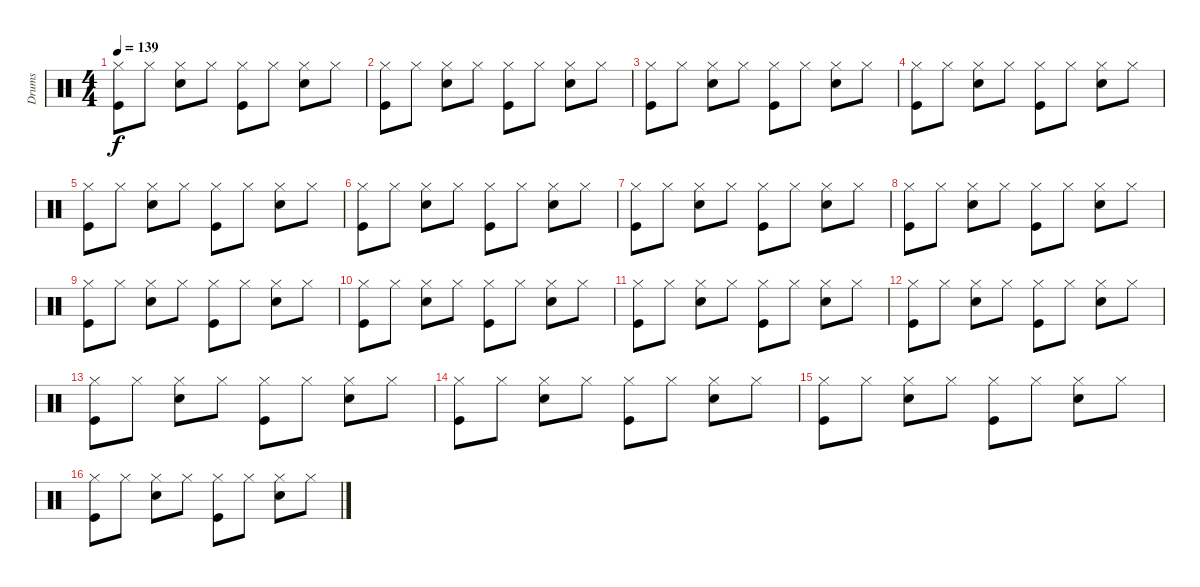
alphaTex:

\track ("Drums" "Drums") {instrument percussion}
\staff {score}
\articulation defaults
\ts (4 4)
\tempo 139
\clef neutral
\ks c
("Kick (hit)" "Hi-Hat (closed)").8{dy f} "Hi-Hat (closed)".8 ("Hi-Hat (closed)" "Snare (hit) 2").8 "Hi-Hat (closed)".8 ("Hi-Hat (closed)" "Kick (hit)").8 "Hi-Hat (closed)".8 ("Hi-Hat (closed)" "Snare (hit) 2").8 "Hi-Hat (closed)".8 |
("Hi-Hat (closed)" "Kick (hit)").8 "Hi-Hat (closed)".8 ("Hi-Hat (closed)" "Snare (hit) 2").8 "Hi-Hat (closed)".8 ("Hi-Hat (closed)" "Kick (hit)").8 "Hi-Hat (closed)".8 ("Hi-Hat (closed)" "Snare (hit) 2").8 "Hi-Hat (closed)".8 |
("Kick (hit)" "Hi-Hat (closed)").8 "Hi-Hat (closed)".8 ("Hi-Hat (closed)" "Snare (hit) 2").8 "Hi-Hat (closed)".8 ("Hi-Hat (closed)" "Kick (hit)").8 "Hi-Hat (closed)".8 ("Hi-Hat (closed)" "Snare (hit) 2").8 "Hi-Hat (closed)".8 |
("Kick (hit)" "Hi-Hat (closed)").8 "Hi-Hat (closed)".8 ("Hi-Hat (closed)" "Snare (hit) 2").8 "Hi-Hat (closed)".8 ("Hi-Hat (closed)" "Kick (hit)").8 "Hi-Hat (closed)".8 ("Hi-Hat (closed)" "Snare (hit) 2").8 "Hi-Hat (closed)".8 |
("Kick (hit)" "Hi-Hat (closed)").8 "Hi-Hat (closed)".8 ("Hi-Hat (closed)" "Snare (hit) 2").8 "Hi-Hat (closed)".8 ("Hi-Hat (closed)" "Kick (hit)").8 "Hi-Hat (closed)".8 ("Hi-Hat (closed)" "Snare (hit) 2").8 "Hi-Hat (closed)".8 |
("Kick (hit)" "Hi-Hat (closed)").8 "Hi-Hat (closed)".8 ("Hi-Hat (closed)" "Snare (hit) 2").8 "Hi-Hat (closed)".8 ("Hi-Hat (closed)" "Kick (hit)").8 "Hi-Hat (closed)".8 ("Hi-Hat (closed)" "Snare (hit) 2").8 "Hi-Hat (closed)".8 |
("Kick (hit)" "Hi-Hat (closed)").8 "Hi-Hat (closed)".8 ("Hi-Hat (closed)" "Snare (hit) 2").8 "Hi-Hat (closed)".8 ("Hi-Hat (closed)" "Kick (hit)").8 "Hi-Hat (closed)".8 ("Hi-Hat (closed)" "Snare (hit) 2").8 "Hi-Hat (closed)".8 |
("Kick (hit)" "Hi-Hat (closed)").8 "Hi-Hat (closed)".8 ("Hi-Hat (closed)" "Snare (hit) 2").8 "Hi-Hat (closed)".8 ("Hi-Hat (closed)" "Kick (hit)").8 "Hi-Hat (closed)".8 ("Hi-Hat (closed)" "Snare (hit) 2").8 "Hi-Hat (closed)".8 |
("Kick (hit)" "Hi-Hat (closed)").8 "Hi-Hat (closed)".8 ("Hi-Hat (closed)" "Snare (hit) 2").8 "Hi-Hat (closed)".8 ("Hi-Hat (closed)" "Kick (hit)").8 "Hi-Hat (closed)".8 ("Hi-Hat (closed)" "Snare (hit) 2").8 "Hi-Hat (closed)".8 |
("Kick (hit)" "Hi-Hat (closed)").8 "Hi-Hat (closed)".8 ("Hi-Hat (closed)" "Snare (hit) 2").8 "Hi-Hat (closed)".8 ("Hi-Hat (closed)" "Kick (hit)").8 "Hi-Hat (closed)".8 ("Hi-Hat (closed)" "Snare (hit) 2").8 "Hi-Hat (closed)".8 |
("Kick (hit)" "Hi-Hat (closed)").8 "Hi-Hat (closed)".8 ("Hi-Hat (closed)" "Snare (hit) 2").8 "Hi-Hat (closed)".8 ("Hi-Hat (closed)" "Kick (hit)").8 "Hi-Hat (closed)".8 ("Hi-Hat (closed)" "Snare (hit) 2").8 "Hi-Hat (closed)".8 |
("Kick (hit)" "Hi-Hat (closed)").8 "Hi-Hat (closed)".8 ("Hi-Hat (closed)" "Snare (hit) 2").8 "Hi-Hat (closed)".8 ("Hi-Hat (closed)" "Kick (hit)").8 "Hi-Hat (closed)".8 ("Hi-Hat (closed)" "Snare (hit) 2").8 "Hi-Hat (closed)".8 |
("Kick (hit)" "Hi-Hat (closed)").8 "Hi-Hat (closed)".8 ("Hi-Hat (closed)" "Snare (hit) 2").8 "Hi-Hat (closed)".8 ("Hi-Hat (closed)" "Kick (hit)").8 "Hi-Hat (closed)".8 ("Hi-Hat (closed)" "Snare (hit) 2").8 "Hi-Hat (closed)".8 |
("Kick (hit)" "Hi-Hat (closed)").8 "Hi-Hat (closed)".8 ("Hi-Hat (closed)" "Snare (hit) 2").8 "Hi-Hat (closed)".8 ("Hi-Hat (closed)" "Kick (hit)").8 "Hi-Hat (closed)".8 ("Hi-Hat (closed)" "Snare (hit) 2").8 "Hi-Hat (closed)".8 |
("Kick (hit)" "Hi-Hat (closed)").8 "Hi-Hat (closed)".8 ("Hi-Hat (closed)" "Snare (hit) 2").8 "Hi-Hat (closed)".8 ("Hi-Hat (closed)" "Kick (hit)").8 "Hi-Hat (closed)".8 ("Hi-Hat (closed)" "Snare (hit) 2").8 "Hi-Hat (closed)".8 |
("Kick (hit)" "Hi-Hat (closed)").8 "Hi-Hat (closed)".8 ("Hi-Hat (closed)" "Snare (hit) 2").8 "Hi-Hat (closed)".8 ("Hi-Hat (closed)" "Kick (hit)").8 "Hi-Hat (closed)".8 ("Hi-Hat (closed)" "Snare (hit) 2").8 "Hi-Hat (closed)".8
